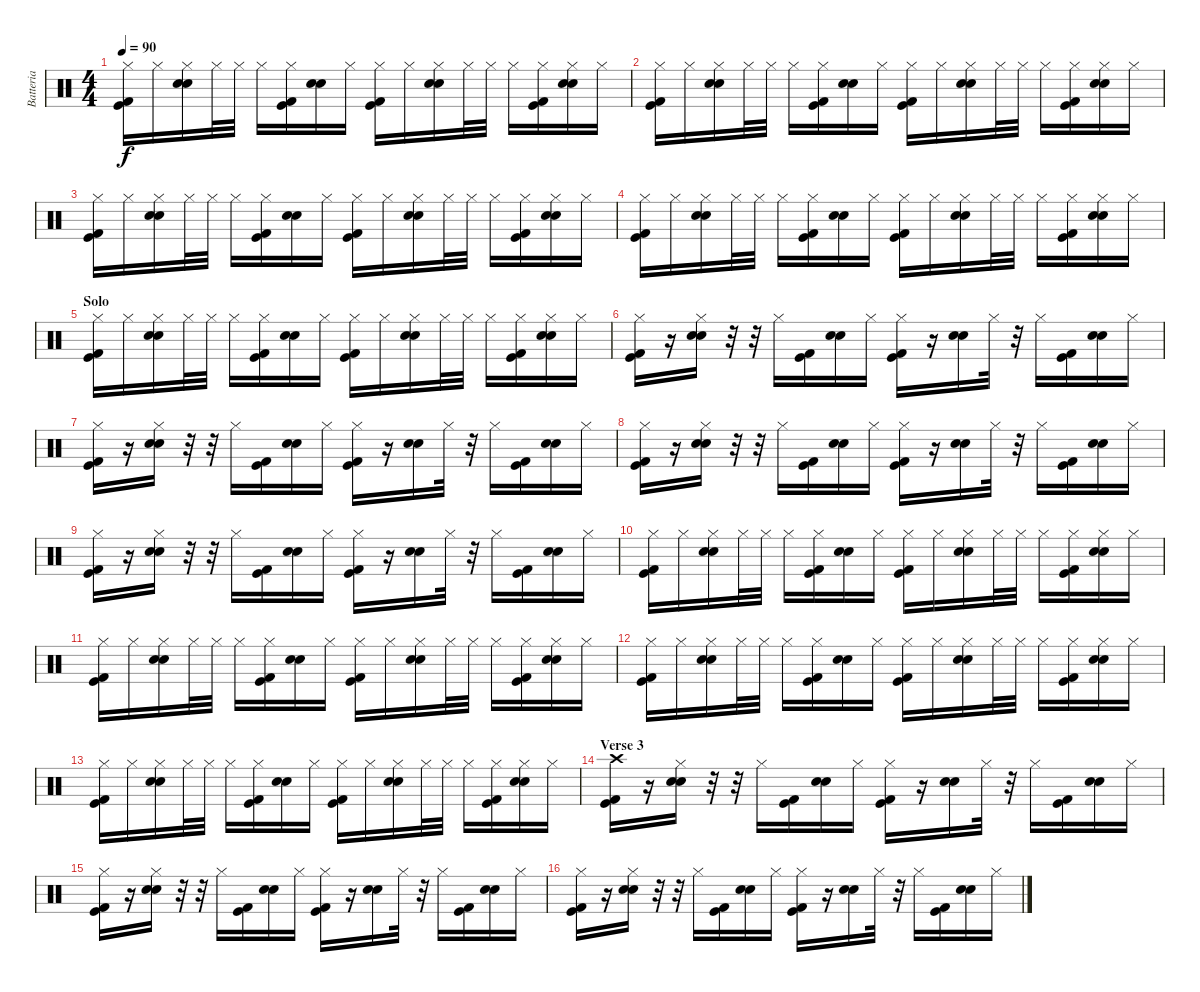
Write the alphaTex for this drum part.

\track ("Batteria" "Batteria") {instrument percussion}
\staff {score}
\articulation defaults
\ts (4 4)
\tempo 90
\clef neutral
\ks c
("Hi-Hat (closed)" "Kick (hit)" "Kick (hit) 2").16{dy f} "Hi-Hat (closed)".16 ("Hi-Hat (closed)" "Snare (hit) 2" "Electric Snare (hit)").16 "Hi-Hat (closed)".32 "Hi-Hat (closed)".32 "Hi-Hat (closed)".16 ("Hi-Hat (closed)" "Kick (hit) 2" "Kick (hit)").16 ("Snare (hit) 2" "Electric Snare (hit)").16 "Hi-Hat (closed)".16 ("Hi-Hat (closed)" "Kick (hit) 2" "Kick (hit)").16 "Hi-Hat (closed)".16 ("Hi-Hat (closed)" "Snare (hit) 2" "Electric Snare (hit)").16 "Hi-Hat (closed)".32 "Hi-Hat (closed)".32 "Hi-Hat (closed)".16 ("Hi-Hat (closed)" "Kick (hit) 2" "Kick (hit)").16 ("Hi-Hat (closed)" "Snare (hit) 2" "Electric Snare (hit)").16 "Hi-Hat (closed)".16 |
("Hi-Hat (closed)" "Kick (hit)" "Kick (hit) 2").16 "Hi-Hat (closed)".16 ("Hi-Hat (closed)" "Snare (hit) 2" "Electric Snare (hit)").16 "Hi-Hat (closed)".32 "Hi-Hat (closed)".32 "Hi-Hat (closed)".16 ("Hi-Hat (closed)" "Kick (hit) 2" "Kick (hit)").16 ("Snare (hit) 2" "Electric Snare (hit)").16 "Hi-Hat (closed)".16 ("Hi-Hat (closed)" "Kick (hit) 2" "Kick (hit)").16 "Hi-Hat (closed)".16 ("Hi-Hat (closed)" "Snare (hit) 2" "Electric Snare (hit)").16 "Hi-Hat (closed)".32 "Hi-Hat (closed)".32 "Hi-Hat (closed)".16 ("Hi-Hat (closed)" "Kick (hit) 2" "Kick (hit)").16 ("Hi-Hat (closed)" "Snare (hit) 2" "Electric Snare (hit)").16 "Hi-Hat (closed)".16 |
("Hi-Hat (closed)" "Kick (hit)" "Kick (hit) 2").16 "Hi-Hat (closed)".16 ("Hi-Hat (closed)" "Snare (hit) 2" "Electric Snare (hit)").16 "Hi-Hat (closed)".32 "Hi-Hat (closed)".32 "Hi-Hat (closed)".16 ("Hi-Hat (closed)" "Kick (hit) 2" "Kick (hit)").16 ("Snare (hit) 2" "Electric Snare (hit)").16 "Hi-Hat (closed)".16 ("Hi-Hat (closed)" "Kick (hit) 2" "Kick (hit)").16 "Hi-Hat (closed)".16 ("Hi-Hat (closed)" "Snare (hit) 2" "Electric Snare (hit)").16 "Hi-Hat (closed)".32 "Hi-Hat (closed)".32 "Hi-Hat (closed)".16 ("Hi-Hat (closed)" "Kick (hit) 2" "Kick (hit)").16 ("Hi-Hat (closed)" "Snare (hit) 2" "Electric Snare (hit)").16 "Hi-Hat (closed)".16 |
("Hi-Hat (closed)" "Kick (hit)" "Kick (hit) 2").16 "Hi-Hat (closed)".16 ("Hi-Hat (closed)" "Snare (hit) 2" "Electric Snare (hit)").16 "Hi-Hat (closed)".32 "Hi-Hat (closed)".32 "Hi-Hat (closed)".16 ("Hi-Hat (closed)" "Kick (hit) 2" "Kick (hit)").16 ("Snare (hit) 2" "Electric Snare (hit)").16 "Hi-Hat (closed)".16 ("Hi-Hat (closed)" "Kick (hit) 2" "Kick (hit)").16 "Hi-Hat (closed)".16 ("Hi-Hat (closed)" "Snare (hit) 2" "Electric Snare (hit)").16 "Hi-Hat (closed)".32 "Hi-Hat (closed)".32 "Hi-Hat (closed)".16 ("Hi-Hat (closed)" "Kick (hit) 2" "Kick (hit)").16 ("Hi-Hat (closed)" "Snare (hit) 2" "Electric Snare (hit)").16 "Hi-Hat (closed)".16 |
\section ("" "Solo")
("Hi-Hat (closed)" "Kick (hit)" "Kick (hit) 2").16 "Hi-Hat (closed)".16 ("Hi-Hat (closed)" "Snare (hit) 2" "Electric Snare (hit)").16 "Hi-Hat (closed)".32 "Hi-Hat (closed)".32 "Hi-Hat (closed)".16 ("Hi-Hat (closed)" "Kick (hit) 2" "Kick (hit)").16 ("Snare (hit) 2" "Electric Snare (hit)").16 "Hi-Hat (closed)".16 ("Hi-Hat (closed)" "Kick (hit) 2" "Kick (hit)").16 "Hi-Hat (closed)".16 ("Hi-Hat (closed)" "Snare (hit) 2" "Electric Snare (hit)").16 "Hi-Hat (closed)".32 "Hi-Hat (closed)".32 "Hi-Hat (closed)".16 ("Hi-Hat (closed)" "Kick (hit) 2" "Kick (hit)").16 ("Hi-Hat (closed)" "Snare (hit) 2" "Electric Snare (hit)").16 "Hi-Hat (closed)".16 |
("Hi-Hat (closed)" "Kick (hit)" "Kick (hit) 2").16 r.16 ("Hi-Hat (closed)" "Snare (hit) 2" "Electric Snare (hit)").16 r.32 r.32 "Hi-Hat (closed)".16 ("Kick (hit) 2" "Kick (hit)").16 ("Snare (hit) 2" "Electric Snare (hit)").16 "Hi-Hat (closed)".16 ("Hi-Hat (closed)" "Kick (hit) 2" "Kick (hit)").16 r.16 ("Snare (hit) 2" "Electric Snare (hit)").16 "Hi-Hat (closed)".32 r.32 "Hi-Hat (closed)".16 ("Kick (hit) 2" "Kick (hit)").16 ("Snare (hit) 2" "Electric Snare (hit)").16 "Hi-Hat (closed)".16 |
("Hi-Hat (closed)" "Kick (hit)" "Kick (hit) 2").16 r.16 ("Hi-Hat (closed)" "Snare (hit) 2" "Electric Snare (hit)").16 r.32 r.32 "Hi-Hat (closed)".16 ("Kick (hit) 2" "Kick (hit)").16 ("Snare (hit) 2" "Electric Snare (hit)").16 "Hi-Hat (closed)".16 ("Hi-Hat (closed)" "Kick (hit) 2" "Kick (hit)").16 r.16 ("Snare (hit) 2" "Electric Snare (hit)").16 "Hi-Hat (closed)".32 r.32 "Hi-Hat (closed)".16 ("Kick (hit) 2" "Kick (hit)").16 ("Snare (hit) 2" "Electric Snare (hit)").16 "Hi-Hat (closed)".16 |
("Hi-Hat (closed)" "Kick (hit)" "Kick (hit) 2").16 r.16 ("Hi-Hat (closed)" "Snare (hit) 2" "Electric Snare (hit)").16 r.32 r.32 "Hi-Hat (closed)".16 ("Kick (hit) 2" "Kick (hit)").16 ("Snare (hit) 2" "Electric Snare (hit)").16 "Hi-Hat (closed)".16 ("Hi-Hat (closed)" "Kick (hit) 2" "Kick (hit)").16 r.16 ("Snare (hit) 2" "Electric Snare (hit)").16 "Hi-Hat (closed)".32 r.32 "Hi-Hat (closed)".16 ("Kick (hit) 2" "Kick (hit)").16 ("Snare (hit) 2" "Electric Snare (hit)").16 "Hi-Hat (closed)".16 |
("Hi-Hat (closed)" "Kick (hit)" "Kick (hit) 2").16 r.16 ("Hi-Hat (closed)" "Snare (hit) 2" "Electric Snare (hit)").16 r.32 r.32 "Hi-Hat (closed)".16 ("Kick (hit) 2" "Kick (hit)").16 ("Snare (hit) 2" "Electric Snare (hit)").16 "Hi-Hat (closed)".16 ("Hi-Hat (closed)" "Kick (hit) 2" "Kick (hit)").16 r.16 ("Snare (hit) 2" "Electric Snare (hit)").16 "Hi-Hat (closed)".32 r.32 "Hi-Hat (closed)".16 ("Kick (hit) 2" "Kick (hit)").16 ("Snare (hit) 2" "Electric Snare (hit)").16 "Hi-Hat (closed)".16 |
("Hi-Hat (closed)" "Kick (hit)" "Kick (hit) 2").16 "Hi-Hat (closed)".16 ("Hi-Hat (closed)" "Snare (hit) 2" "Electric Snare (hit)").16 "Hi-Hat (closed)".32 "Hi-Hat (closed)".32 "Hi-Hat (closed)".16 ("Hi-Hat (closed)" "Kick (hit) 2" "Kick (hit)").16 ("Snare (hit) 2" "Electric Snare (hit)").16 "Hi-Hat (closed)".16 ("Hi-Hat (closed)" "Kick (hit) 2" "Kick (hit)").16 "Hi-Hat (closed)".16 ("Hi-Hat (closed)" "Snare (hit) 2" "Electric Snare (hit)").16 "Hi-Hat (closed)".32 "Hi-Hat (closed)".32 "Hi-Hat (closed)".16 ("Hi-Hat (closed)" "Kick (hit) 2" "Kick (hit)").16 ("Hi-Hat (closed)" "Snare (hit) 2" "Electric Snare (hit)").16 "Hi-Hat (closed)".16 |
("Hi-Hat (closed)" "Kick (hit)" "Kick (hit) 2").16 "Hi-Hat (closed)".16 ("Hi-Hat (closed)" "Snare (hit) 2" "Electric Snare (hit)").16 "Hi-Hat (closed)".32 "Hi-Hat (closed)".32 "Hi-Hat (closed)".16 ("Hi-Hat (closed)" "Kick (hit) 2" "Kick (hit)").16 ("Snare (hit) 2" "Electric Snare (hit)").16 "Hi-Hat (closed)".16 ("Hi-Hat (closed)" "Kick (hit) 2" "Kick (hit)").16 "Hi-Hat (closed)".16 ("Hi-Hat (closed)" "Snare (hit) 2" "Electric Snare (hit)").16 "Hi-Hat (closed)".32 "Hi-Hat (closed)".32 "Hi-Hat (closed)".16 ("Hi-Hat (closed)" "Kick (hit) 2" "Kick (hit)").16 ("Hi-Hat (closed)" "Snare (hit) 2" "Electric Snare (hit)").16 "Hi-Hat (closed)".16 |
("Hi-Hat (closed)" "Kick (hit)" "Kick (hit) 2").16 "Hi-Hat (closed)".16 ("Hi-Hat (closed)" "Snare (hit) 2" "Electric Snare (hit)").16 "Hi-Hat (closed)".32 "Hi-Hat (closed)".32 "Hi-Hat (closed)".16 ("Hi-Hat (closed)" "Kick (hit) 2" "Kick (hit)").16 ("Snare (hit) 2" "Electric Snare (hit)").16 "Hi-Hat (closed)".16 ("Hi-Hat (closed)" "Kick (hit) 2" "Kick (hit)").16 "Hi-Hat (closed)".16 ("Hi-Hat (closed)" "Snare (hit) 2" "Electric Snare (hit)").16 "Hi-Hat (closed)".32 "Hi-Hat (closed)".32 "Hi-Hat (closed)".16 ("Hi-Hat (closed)" "Kick (hit) 2" "Kick (hit)").16 ("Hi-Hat (closed)" "Snare (hit) 2" "Electric Snare (hit)").16 "Hi-Hat (closed)".16 |
("Hi-Hat (closed)" "Kick (hit)" "Kick (hit) 2").16 "Hi-Hat (closed)".16 ("Hi-Hat (closed)" "Snare (hit) 2" "Electric Snare (hit)").16 "Hi-Hat (closed)".32 "Hi-Hat (closed)".32 "Hi-Hat (closed)".16 ("Hi-Hat (closed)" "Kick (hit) 2" "Kick (hit)").16 ("Snare (hit) 2" "Electric Snare (hit)").16 "Hi-Hat (closed)".16 ("Hi-Hat (closed)" "Kick (hit) 2" "Kick (hit)").16 "Hi-Hat (closed)".16 ("Hi-Hat (closed)" "Snare (hit) 2" "Electric Snare (hit)").16 "Hi-Hat (closed)".32 "Hi-Hat (closed)".32 "Hi-Hat (closed)".16 ("Hi-Hat (closed)" "Kick (hit) 2" "Kick (hit)").16 ("Hi-Hat (closed)" "Snare (hit) 2" "Electric Snare (hit)").16 "Hi-Hat (closed)".16 |
\section ("" "Verse 3")
("Crash high (hit)" "Kick (hit)" "Kick (hit) 2").16 r.16 ("Hi-Hat (closed)" "Snare (hit) 2" "Electric Snare (hit)").16 r.32 r.32 "Hi-Hat (closed)".16 ("Kick (hit) 2" "Kick (hit)").16 ("Snare (hit) 2" "Electric Snare (hit)").16 "Hi-Hat (closed)".16 ("Hi-Hat (closed)" "Kick (hit) 2" "Kick (hit)").16 r.16 ("Snare (hit) 2" "Electric Snare (hit)").16 "Hi-Hat (closed)".32 r.32 "Hi-Hat (closed)".16 ("Kick (hit) 2" "Kick (hit)").16 ("Snare (hit) 2" "Electric Snare (hit)").16 "Hi-Hat (closed)".16 |
("Hi-Hat (closed)" "Kick (hit)" "Kick (hit) 2").16 r.16 ("Hi-Hat (closed)" "Snare (hit) 2" "Electric Snare (hit)").16 r.32 r.32 "Hi-Hat (closed)".16 ("Kick (hit) 2" "Kick (hit)").16 ("Snare (hit) 2" "Electric Snare (hit)").16 "Hi-Hat (closed)".16 ("Hi-Hat (closed)" "Kick (hit) 2" "Kick (hit)").16 r.16 ("Snare (hit) 2" "Electric Snare (hit)").16 "Hi-Hat (closed)".32 r.32 "Hi-Hat (closed)".16 ("Kick (hit) 2" "Kick (hit)").16 ("Snare (hit) 2" "Electric Snare (hit)").16 "Hi-Hat (closed)".16 |
("Hi-Hat (closed)" "Kick (hit)" "Kick (hit) 2").16 r.16 ("Hi-Hat (closed)" "Snare (hit) 2" "Electric Snare (hit)").16 r.32 r.32 "Hi-Hat (closed)".16 ("Kick (hit) 2" "Kick (hit)").16 ("Snare (hit) 2" "Electric Snare (hit)").16 "Hi-Hat (closed)".16 ("Hi-Hat (closed)" "Kick (hit) 2" "Kick (hit)").16 r.16 ("Snare (hit) 2" "Electric Snare (hit)").16 "Hi-Hat (closed)".32 r.32 "Hi-Hat (closed)".16 ("Kick (hit) 2" "Kick (hit)").16 ("Snare (hit) 2" "Electric Snare (hit)").16 "Hi-Hat (closed)".16
